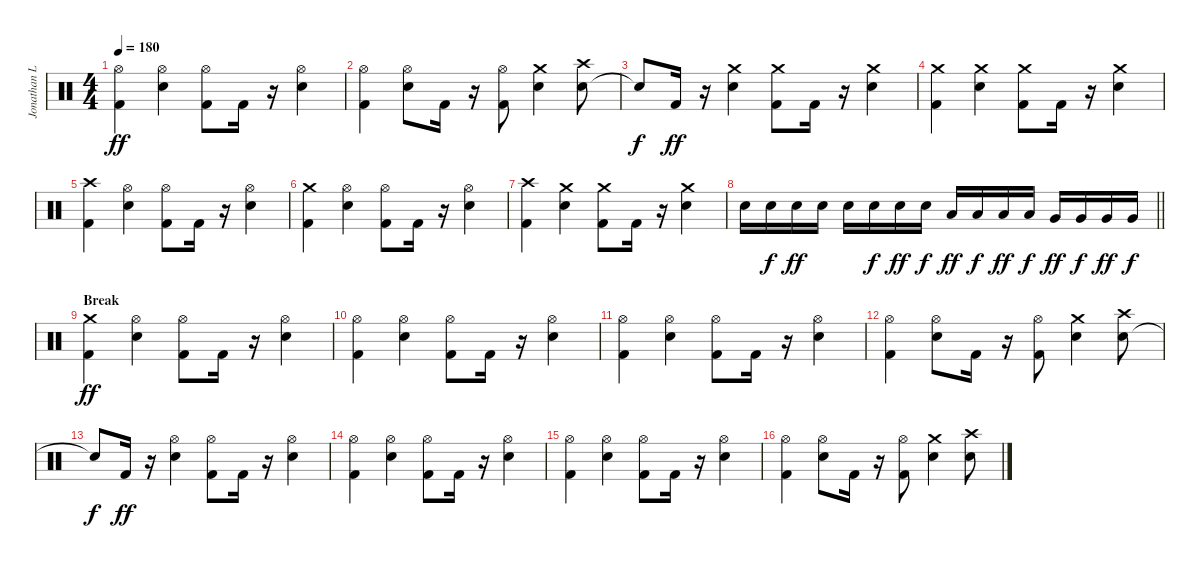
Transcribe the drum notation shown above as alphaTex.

\track ("Jonathan Lòpez" "Jonathan L") {instrument percussion}
\staff {score}
\articulation defaults
\ts (4 4)
\tempo 180
\clef neutral
\ks c
("Kick (hit) 2" "Hi-Hat (open)").4{dy ff} ("Electric Snare (hit)" "Hi-Hat (open)").4 ("Kick (hit) 2" "Hi-Hat (open)").8 "Kick (hit) 2".16 r.16 ("Electric Snare (hit)" "Hi-Hat (open)").4 |
("Kick (hit) 2" "Hi-Hat (open)").4 ("Electric Snare (hit)" "Hi-Hat (open)").8 "Kick (hit) 2".16 r.16 ("Kick (hit) 2" "Hi-Hat (open)").8 ("Electric Snare (hit)" "Crash medium (hit)").4 ("Electric Snare (hit)" "Crash high (hit)").8 |
"Snare (hit)"{t}.8{dy f} "Kick (hit) 2".16{dy ff} r.16 ("Electric Snare (hit)" "Crash medium (hit)").4 ("Kick (hit) 2" "Crash medium (hit)").8 "Kick (hit) 2".16 r.16 ("Electric Snare (hit)" "Crash medium (hit)").4 |
("Kick (hit) 2" "Crash medium (hit)").4 ("Electric Snare (hit)" "Crash medium (hit)").4 ("Kick (hit) 2" "Crash medium (hit)").8 "Kick (hit) 2".16 r.16 ("Electric Snare (hit)" "Crash medium (hit)").4 |
("Kick (hit) 2" "Crash high (hit)").4 ("Electric Snare (hit)" "Hi-Hat (open)").4 ("Kick (hit) 2" "Hi-Hat (open)").8 "Kick (hit) 2".16 r.16 ("Electric Snare (hit)" "Hi-Hat (open)").4 |
("Kick (hit) 2" "Crash medium (hit)").4 ("Electric Snare (hit)" "Hi-Hat (open)").4 ("Kick (hit) 2" "Hi-Hat (open)").8 "Kick (hit) 2".16 r.16 ("Electric Snare (hit)" "Hi-Hat (open)").4 |
("Kick (hit) 2" "Crash high (hit)").4 ("Electric Snare (hit)" "Crash medium (hit)").4 ("Kick (hit) 2" "Crash medium (hit)").8 "Kick (hit) 2".16 r.16 ("Electric Snare (hit)" "Crash medium (hit)").4 |
\barLineRight lightlight "Electric Snare (hit)".16 "Electric Snare (hit)".16{dy f} "Electric Snare (hit)".16{dy ff} "Electric Snare (hit)".16 "Electric Snare (hit)".16 "Electric Snare (hit)".16{dy f} "Electric Snare (hit)".16{dy ff} "Electric Snare (hit)".16{dy f} "Low Tom (hit)".16{dy ff} "Low Tom (hit)".16{dy f} "Low Tom (hit)".16{dy ff} "Low Tom (hit)".16{dy f} "Very Low Tom (hit)".16{dy ff} "Very Low Tom (hit)".16{dy f} "Very Low Tom (hit)".16{dy ff} "Very Low Tom (hit)".16{dy f}
|
\section ("" "Break")
("Kick (hit) 2" "Crash medium (hit)").4{dy ff} ("Electric Snare (hit)" "Hi-Hat (open)").4 ("Kick (hit) 2" "Hi-Hat (open)").8 "Kick (hit) 2".16 r.16 ("Electric Snare (hit)" "Hi-Hat (open)").4 |
("Hi-Hat (open)" "Kick (hit) 2").4 ("Hi-Hat (open)" "Electric Snare (hit)").4 ("Hi-Hat (open)" "Kick (hit) 2").8 "Kick (hit) 2".16 r.16 ("Hi-Hat (open)" "Electric Snare (hit)").4 |
("Kick (hit) 2" "Hi-Hat (open)").4 ("Electric Snare (hit)" "Hi-Hat (open)").4 ("Kick (hit) 2" "Hi-Hat (open)").8 "Kick (hit) 2".16 r.16 ("Electric Snare (hit)" "Hi-Hat (open)").4 |
("Kick (hit) 2" "Hi-Hat (open)").4 ("Electric Snare (hit)" "Hi-Hat (open)").8 "Kick (hit) 2".16 r.16 ("Kick (hit) 2" "Hi-Hat (open)").8 ("Electric Snare (hit)" "Crash medium (hit)").4 ("Electric Snare (hit)" "Crash high (hit)").8 |
"Snare (hit)"{t}.8{dy f} "Kick (hit) 2".16{dy ff} r.16 ("Electric Snare (hit)" "Hi-Hat (open)").4 ("Kick (hit) 2" "Hi-Hat (open)").8 "Kick (hit) 2".16 r.16 ("Electric Snare (hit)" "Hi-Hat (open)").4 |
("Kick (hit) 2" "Hi-Hat (open)").4 ("Electric Snare (hit)" "Hi-Hat (open)").4 ("Kick (hit) 2" "Hi-Hat (open)").8 "Kick (hit) 2".16 r.16 ("Electric Snare (hit)" "Hi-Hat (open)").4 |
("Kick (hit) 2" "Hi-Hat (open)").4 ("Electric Snare (hit)" "Hi-Hat (open)").4 ("Kick (hit) 2" "Hi-Hat (open)").8 "Kick (hit) 2".16 r.16 ("Electric Snare (hit)" "Hi-Hat (open)").4 |
("Kick (hit) 2" "Hi-Hat (open)").4 ("Electric Snare (hit)" "Hi-Hat (open)").8 "Kick (hit) 2".16 r.16 ("Kick (hit) 2" "Hi-Hat (open)").8 ("Electric Snare (hit)" "Crash medium (hit)").4 ("Electric Snare (hit)" "Crash high (hit)").8
